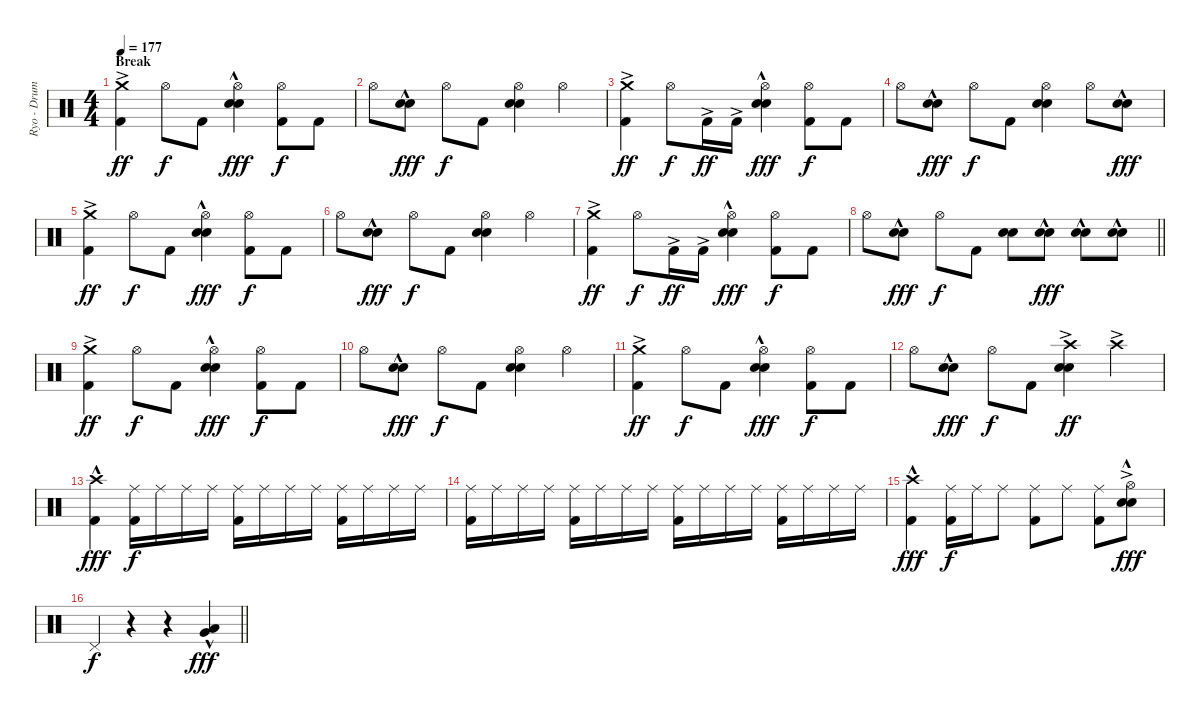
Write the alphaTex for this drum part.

\track ("Ryo - Drums" "Ryo - Drum") {instrument percussion}
\staff {score}
\articulation defaults
\ts (4 4)
\section ("" "Break")
\tempo 177
\clef neutral
\ks c
("Crash medium (hit)"{ac} "Kick (hit) 2").4{dy ff} "Hi-Hat (open)".8{dy f} "Kick (hit) 2".8 ("Hi-Hat (open)" "Electric Snare (hit)"{hac} "Snare (hit) 2"{hac}).4{dy fff} ("Hi-Hat (open)" "Kick (hit) 2").8{dy f} "Kick (hit) 2".8 |
"Hi-Hat (open)".8 ("Electric Snare (hit)"{hac} "Snare (hit) 2"{hac}).8{dy fff} "Hi-Hat (open)".8{dy f} "Kick (hit) 2".8 ("Hi-Hat (open)" "Electric Snare (hit)" "Snare (hit) 2").4 "Hi-Hat (open)".4 |
("Crash medium (hit)"{ac} "Kick (hit) 2").4{dy ff} "Hi-Hat (open)".8{dy f} "Kick (hit) 2"{ac}.16{dy ff} "Kick (hit) 2"{ac}.16 ("Hi-Hat (open)" "Electric Snare (hit)"{hac} "Snare (hit) 2"{hac}).4{dy fff} ("Hi-Hat (open)" "Kick (hit) 2").8{dy f} "Kick (hit) 2".8 |
"Hi-Hat (open)".8 ("Electric Snare (hit)"{hac} "Snare (hit) 2"{hac}).8{dy fff} "Hi-Hat (open)".8{dy f} "Kick (hit) 2".8 ("Hi-Hat (open)" "Electric Snare (hit)" "Snare (hit) 2").4 "Hi-Hat (open)".8 ("Electric Snare (hit)"{hac} "Snare (hit) 2"{hac}).8{dy fff} |
("Crash medium (hit)"{ac} "Kick (hit) 2").4{dy ff} "Hi-Hat (open)".8{dy f} "Kick (hit) 2".8 ("Hi-Hat (open)" "Electric Snare (hit)"{hac} "Snare (hit) 2"{hac}).4{dy fff} ("Hi-Hat (open)" "Kick (hit) 2").8{dy f} "Kick (hit) 2".8 |
"Hi-Hat (open)".8 ("Electric Snare (hit)"{hac} "Snare (hit) 2"{hac}).8{dy fff} "Hi-Hat (open)".8{dy f} "Kick (hit) 2".8 ("Hi-Hat (open)" "Electric Snare (hit)" "Snare (hit) 2").4 "Hi-Hat (open)".4 |
("Crash medium (hit)"{ac} "Kick (hit) 2").4{dy ff} "Hi-Hat (open)".8{dy f} "Kick (hit) 2"{ac}.16{dy ff} "Kick (hit) 2"{ac}.16 ("Hi-Hat (open)" "Electric Snare (hit)"{hac} "Snare (hit) 2"{hac}).4{dy fff} ("Hi-Hat (open)" "Kick (hit) 2").8{dy f} "Kick (hit) 2".8 |
\barLineRight lightlight "Hi-Hat (open)".8
("Electric Snare (hit)"{hac} "Snare (hit) 2"{hac}).8{dy fff} "Hi-Hat (open)".8{dy f} "Kick (hit) 2".8 ("Electric Snare (hit)" "Snare (hit) 2").8 ("Electric Snare (hit)"{hac} "Snare (hit) 2"{hac}).8{dy fff} ("Electric Snare (hit)"{hac} "Snare (hit) 2"{hac}).8 ("Electric Snare (hit)"{hac} "Snare (hit) 2"{hac}).8 |
\section ("" "")
("Crash medium (hit)"{ac} "Kick (hit) 2").4{dy ff} "Hi-Hat (open)".8{dy f} "Kick (hit) 2".8 ("Hi-Hat (open)" "Electric Snare (hit)"{hac} "Snare (hit) 2"{hac}).4{dy fff} ("Hi-Hat (open)" "Kick (hit) 2").8{dy f} "Kick (hit) 2".8 |
"Hi-Hat (open)".8 ("Electric Snare (hit)"{hac} "Snare (hit) 2"{hac}).8{dy fff} "Hi-Hat (open)".8{dy f} "Kick (hit) 2".8 ("Hi-Hat (open)" "Electric Snare (hit)" "Snare (hit) 2").4 "Hi-Hat (open)".4 |
("Crash medium (hit)"{ac} "Kick (hit) 2").4{dy ff} "Hi-Hat (open)".8{dy f} "Kick (hit) 2".8 ("Hi-Hat (open)" "Electric Snare (hit)"{hac} "Snare (hit) 2"{hac}).4{dy fff} ("Hi-Hat (open)" "Kick (hit) 2").8{dy f} "Kick (hit) 2".8 |
"Hi-Hat (open)".8 ("Electric Snare (hit)"{hac} "Snare (hit) 2"{hac}).8{dy fff} "Hi-Hat (open)".8{dy f} "Kick (hit) 2".8 ("Crash high (hit)"{ac} "Electric Snare (hit)" "Snare (hit) 2").4{dy ff} "Crash high (hit)"{ac}.4 |
("Crash high (hit)"{hac} "Kick (hit) 2").4{dy fff} ("Ride (middle)" "Kick (hit) 2").16{dy f} "Ride (middle)".16 "Ride (middle)".16 "Ride (middle)".16 ("Ride (middle)" "Kick (hit) 2").16 "Ride (middle)".16 "Ride (middle)".16 "Ride (middle)".16 ("Ride (middle)" "Kick (hit) 2").16 "Ride (middle)".16 "Ride (middle)".16 "Ride (middle)".16 |
("Ride (middle)" "Kick (hit) 2").16 "Ride (middle)".16 "Ride (middle)".16 "Ride (middle)".16 ("Ride (middle)" "Kick (hit) 2").16 "Ride (middle)".16 "Ride (middle)".16 "Ride (middle)".16 ("Ride (middle)" "Kick (hit) 2").16 "Ride (middle)".16 "Ride (middle)".16 "Ride (middle)".16 ("Ride (middle)" "Kick (hit) 2").16 "Ride (middle)".16 "Ride (middle)".16 "Ride (middle)".16 |
("Crash high (hit)"{hac} "Kick (hit) 2").4{dy fff} ("Ride (middle)" "Kick (hit) 2").16{dy f} "Ride (middle)".16 "Ride (middle)".8 ("Ride (middle)" "Kick (hit) 2").8 "Ride (middle)".8 ("Ride (middle)" "Kick (hit) 2").8 ("Hi-Hat (open)"{ac} "Electric Snare (hit)"{hac} "Snare (hit) 2"{hac}).8{dy fff} |
\barLineRight lightlight "Pedal Hi-Hat (hit)".4{dy f}
r.4 r.4 ("Low Tom (hit)"{hac} "Very Low Tom (hit)"{hac}).4{dy fff}
